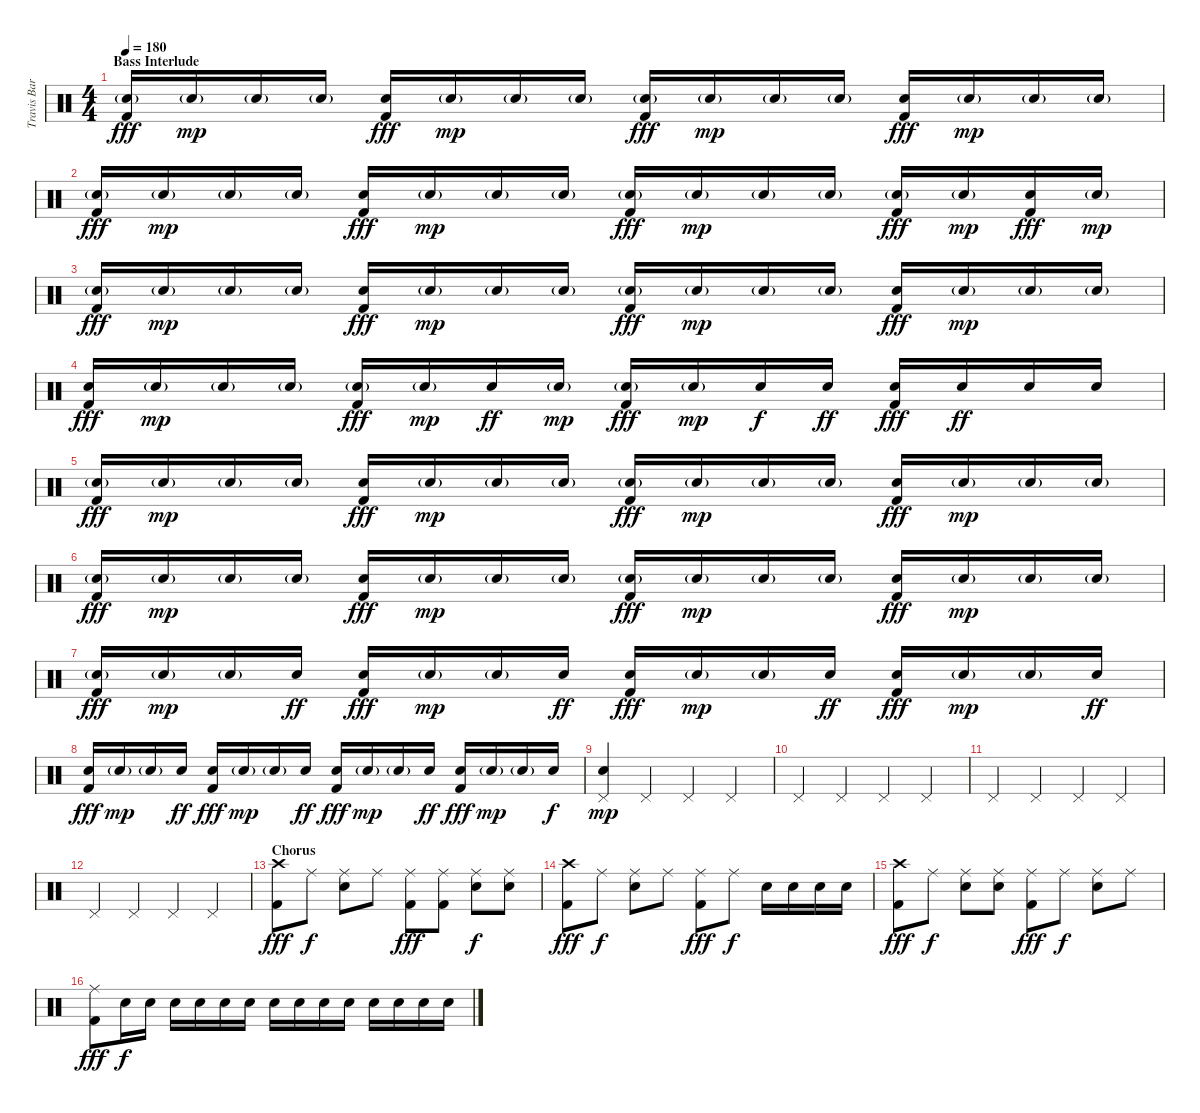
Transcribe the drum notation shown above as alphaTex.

\track ("Travis Barker" "Travis Bar") {instrument percussion}
\staff {score}
\articulation defaults
\ts (4 4)
\section ("" "Bass Interlude")
\tempo 180
\clef neutral
\ks c
("Electric Snare (hit)"{g} "Kick (hit) 2").16{dy fff} "Electric Snare (hit)"{g}.16{dy mp} "Electric Snare (hit)"{g}.16 "Electric Snare (hit)"{g}.16 ("Electric Snare (hit)" "Kick (hit) 2").16{dy fff} "Electric Snare (hit)"{g}.16{dy mp} "Electric Snare (hit)"{g}.16 "Electric Snare (hit)"{g}.16 ("Electric Snare (hit)"{g} "Kick (hit) 2").16{dy fff} "Electric Snare (hit)"{g}.16{dy mp} "Electric Snare (hit)"{g}.16 "Electric Snare (hit)"{g}.16 ("Electric Snare (hit)" "Kick (hit) 2").16{dy fff} "Electric Snare (hit)"{g}.16{dy mp} "Electric Snare (hit)"{g}.16 "Electric Snare (hit)"{g}.16 |
("Electric Snare (hit)"{g} "Kick (hit) 2").16{dy fff} "Electric Snare (hit)"{g}.16{dy mp} "Electric Snare (hit)"{g}.16 "Electric Snare (hit)"{g}.16 ("Electric Snare (hit)" "Kick (hit) 2").16{dy fff} "Electric Snare (hit)"{g}.16{dy mp} "Electric Snare (hit)"{g}.16 "Electric Snare (hit)"{g}.16 ("Electric Snare (hit)"{g} "Kick (hit) 2").16{dy fff} "Electric Snare (hit)"{g}.16{dy mp} "Electric Snare (hit)"{g}.16 "Electric Snare (hit)"{g}.16 ("Electric Snare (hit)"{g} "Kick (hit) 2").16{dy fff} "Electric Snare (hit)"{g}.16{dy mp} ("Electric Snare (hit)" "Kick (hit) 2").16{dy fff} "Electric Snare (hit)"{g}.16{dy mp} |
("Electric Snare (hit)"{g} "Kick (hit) 2").16{dy fff} "Electric Snare (hit)"{g}.16{dy mp} "Electric Snare (hit)"{g}.16 "Electric Snare (hit)"{g}.16 ("Electric Snare (hit)" "Kick (hit) 2").16{dy fff} "Electric Snare (hit)"{g}.16{dy mp} "Electric Snare (hit)"{g}.16 "Electric Snare (hit)"{g}.16 ("Electric Snare (hit)"{g} "Kick (hit) 2").16{dy fff} "Electric Snare (hit)"{g}.16{dy mp} "Electric Snare (hit)"{g}.16 "Electric Snare (hit)"{g}.16 ("Electric Snare (hit)" "Kick (hit) 2").16{dy fff} "Electric Snare (hit)"{g}.16{dy mp} "Electric Snare (hit)"{g}.16 "Electric Snare (hit)"{g}.16 |
("Electric Snare (hit)" "Kick (hit) 2").16{dy fff} "Electric Snare (hit)"{g}.16{dy mp} "Electric Snare (hit)"{g}.16 "Electric Snare (hit)"{g}.16 ("Electric Snare (hit)"{g} "Kick (hit) 2").16{dy fff} "Electric Snare (hit)"{g}.16{dy mp} "Electric Snare (hit)".16{dy ff} "Electric Snare (hit)"{g}.16{dy mp} ("Electric Snare (hit)"{g} "Kick (hit) 2").16{dy fff} "Electric Snare (hit)"{g}.16{dy mp} "Electric Snare (hit)".16{dy f} "Electric Snare (hit)".16{dy ff} ("Electric Snare (hit)" "Kick (hit) 2").16{dy fff} "Electric Snare (hit)".16{dy ff} "Electric Snare (hit)".16 "Electric Snare (hit)".16 |
("Electric Snare (hit)"{g} "Kick (hit) 2").16{dy fff} "Electric Snare (hit)"{g}.16{dy mp} "Electric Snare (hit)"{g}.16 "Electric Snare (hit)"{g}.16 ("Electric Snare (hit)" "Kick (hit) 2").16{dy fff} "Electric Snare (hit)"{g}.16{dy mp} "Electric Snare (hit)"{g}.16 "Electric Snare (hit)"{g}.16 ("Electric Snare (hit)"{g} "Kick (hit) 2").16{dy fff} "Electric Snare (hit)"{g}.16{dy mp} "Electric Snare (hit)"{g}.16 "Electric Snare (hit)"{g}.16 ("Electric Snare (hit)" "Kick (hit) 2").16{dy fff} "Electric Snare (hit)"{g}.16{dy mp} "Electric Snare (hit)"{g}.16 "Electric Snare (hit)"{g}.16 |
("Electric Snare (hit)"{g} "Kick (hit) 2").16{dy fff} "Electric Snare (hit)"{g}.16{dy mp} "Electric Snare (hit)"{g}.16 "Electric Snare (hit)"{g}.16 ("Electric Snare (hit)" "Kick (hit) 2").16{dy fff} "Electric Snare (hit)"{g}.16{dy mp} "Electric Snare (hit)"{g}.16 "Electric Snare (hit)"{g}.16 ("Electric Snare (hit)"{g} "Kick (hit) 2").16{dy fff} "Electric Snare (hit)"{g}.16{dy mp} "Electric Snare (hit)"{g}.16 "Electric Snare (hit)"{g}.16 ("Electric Snare (hit)" "Kick (hit) 2").16{dy fff} "Electric Snare (hit)"{g}.16{dy mp} "Electric Snare (hit)"{g}.16 "Electric Snare (hit)"{g}.16 |
("Electric Snare (hit)"{g} "Kick (hit) 2").16{dy fff} "Electric Snare (hit)"{g}.16{dy mp} "Electric Snare (hit)"{g}.16 "Electric Snare (hit)".16{dy ff} ("Electric Snare (hit)" "Kick (hit) 2").16{dy fff} "Electric Snare (hit)"{g}.16{dy mp} "Electric Snare (hit)"{g}.16 "Electric Snare (hit)".16{dy ff} ("Electric Snare (hit)" "Kick (hit) 2").16{dy fff} "Electric Snare (hit)"{g}.16{dy mp} "Electric Snare (hit)"{g}.16 "Electric Snare (hit)".16{dy ff} ("Electric Snare (hit)" "Kick (hit) 2").16{dy fff} "Electric Snare (hit)"{g}.16{dy mp} "Electric Snare (hit)"{g}.16 "Electric Snare (hit)".16{dy ff} |
("Electric Snare (hit)" "Kick (hit) 2").16{dy fff} "Electric Snare (hit)"{g}.16{dy mp} "Electric Snare (hit)"{g}.16 "Electric Snare (hit)".16{dy ff} ("Electric Snare (hit)" "Kick (hit) 2").16{dy fff} "Electric Snare (hit)"{g}.16{dy mp} "Electric Snare (hit)"{g}.16 "Electric Snare (hit)".16{dy ff} ("Electric Snare (hit)" "Kick (hit) 2").16{dy fff} "Electric Snare (hit)"{g}.16{dy mp} "Electric Snare (hit)"{g}.16 "Electric Snare (hit)".16{dy ff} ("Electric Snare (hit)" "Kick (hit) 2").16{dy fff} "Electric Snare (hit)"{g}.16{dy mp} "Electric Snare (hit)"{g}.16 "Electric Snare (hit)".16{dy f} |
("Electric Snare (hit)" "Pedal Hi-Hat (hit)").4{dy mp} "Pedal Hi-Hat (hit)".4 "Pedal Hi-Hat (hit)".4 "Pedal Hi-Hat (hit)".4 |
"Pedal Hi-Hat (hit)".4 "Pedal Hi-Hat (hit)".4 "Pedal Hi-Hat (hit)".4 "Pedal Hi-Hat (hit)".4 |
"Pedal Hi-Hat (hit)".4 "Pedal Hi-Hat (hit)".4 "Pedal Hi-Hat (hit)".4 "Pedal Hi-Hat (hit)".4 |
"Pedal Hi-Hat (hit)".4 "Pedal Hi-Hat (hit)".4 "Pedal Hi-Hat (hit)".4 "Pedal Hi-Hat (hit)".4 |
\section ("" "Chorus")
("Crash high (hit)" "Kick (hit) 2").8{dy fff} "Ride (middle)".8{dy f} ("Ride (middle)" "Electric Snare (hit)").8 "Ride (middle)".8 ("Ride (middle)" "Kick (hit) 2").8{dy fff} ("Ride (middle)" "Kick (hit) 2").8 ("Ride (middle)" "Electric Snare (hit)").8{dy f} ("Ride (middle)" "Electric Snare (hit)").8 |
("Crash high (hit)" "Kick (hit) 2").8{dy fff} "Ride (middle)".8{dy f} ("Ride (middle)" "Electric Snare (hit)").8 "Ride (middle)".8 ("Ride (middle)" "Kick (hit) 2").8{dy fff} "Ride (middle)".8{dy f} "Electric Snare (hit)".16 "Electric Snare (hit)".16 "Electric Snare (hit)".16 "Electric Snare (hit)".16 |
("Crash high (hit)" "Kick (hit) 2").8{dy fff} "Ride (middle)".8{dy f} ("Ride (middle)" "Electric Snare (hit)").8 ("Ride (middle)" "Electric Snare (hit)").8 ("Ride (middle)" "Kick (hit) 2").8{dy fff} "Ride (middle)".8{dy f} ("Ride (middle)" "Electric Snare (hit)").8 "Ride (middle)".8 |
("Ride (middle)" "Kick (hit) 2").8{dy fff} "Electric Snare (hit)".16{dy f} "Electric Snare (hit)".16 "Electric Snare (hit)".16 "Electric Snare (hit)".16 "Electric Snare (hit)".16 "Electric Snare (hit)".16 "Electric Snare (hit)".16 "Electric Snare (hit)".16 "Electric Snare (hit)".16 "Electric Snare (hit)".16 "Electric Snare (hit)".16 "Electric Snare (hit)".16 "Electric Snare (hit)".16 "Electric Snare (hit)".16
